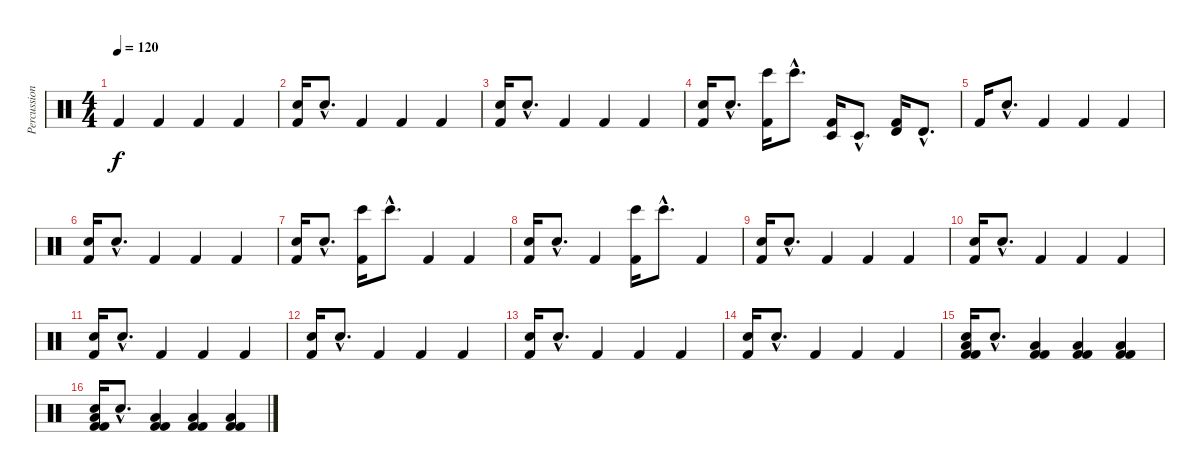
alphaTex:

\track ("Percussions" "Percussion") {instrument percussion}
\staff {score}
\articulation defaults
\ts (4 4)
\tempo 120
\clef neutral
\ks c "Kick (hit) 2".4{dy f} "Kick (hit) 2".4 "Kick (hit) 2".4 "Kick (hit) 2".4
|
("Electric Snare (hit)" "Kick (hit) 2").16 "Electric Snare (hit)"{hac}.8{d} "Kick (hit) 2".4 "Kick (hit) 2".4 "Kick (hit) 2".4 |
("Electric Snare (hit)" "Kick (hit) 2").16 "Electric Snare (hit)"{hac}.8{d} "Kick (hit) 2".4 "Kick (hit) 2".4 "Kick (hit) 2".4 |
("Electric Snare (hit)" "Kick (hit) 2").16 "Electric Snare (hit)"{hac}.8{d} ("Bongo High (hit)" "Kick (hit) 2").16 "Bongo High (hit)"{hac}.8{d} ("Timbale low (hit)" "Kick (hit) 2").16 "Timbale low (hit)"{hac}.8{d} ("Timbale high (hit)" "Kick (hit) 2").16 "Timbale high (hit)"{hac}.8{d} |
"Kick (hit) 2".16 "Electric Snare (hit)"{hac}.8{d} "Kick (hit) 2".4 "Kick (hit) 2".4 "Kick (hit) 2".4 |
("Electric Snare (hit)" "Kick (hit) 2").16 "Electric Snare (hit)"{hac}.8{d} "Kick (hit) 2".4 "Kick (hit) 2".4 "Kick (hit) 2".4 |
("Electric Snare (hit)" "Kick (hit) 2").16 "Electric Snare (hit)"{hac}.8{d} ("Bongo High (hit)" "Kick (hit) 2").16 "Bongo High (hit)"{hac}.8{d} "Kick (hit) 2".4 "Kick (hit) 2".4 |
("Electric Snare (hit)" "Kick (hit) 2").16 "Electric Snare (hit)"{hac}.8{d} "Kick (hit) 2".4 ("Bongo High (hit)" "Kick (hit) 2").16 "Bongo High (hit)"{hac}.8{d} "Kick (hit) 2".4 |
("Electric Snare (hit)" "Kick (hit) 2").16 "Electric Snare (hit)"{hac}.8{d} "Kick (hit) 2".4 "Kick (hit) 2".4 "Kick (hit) 2".4 |
("Electric Snare (hit)" "Kick (hit) 2").16 "Electric Snare (hit)"{hac}.8{d} "Kick (hit) 2".4 "Kick (hit) 2".4 "Kick (hit) 2".4 |
("Electric Snare (hit)" "Kick (hit) 2").16 "Electric Snare (hit)"{hac}.8{d} "Kick (hit) 2".4 "Kick (hit) 2".4 "Kick (hit) 2".4 |
("Electric Snare (hit)" "Kick (hit) 2").16 "Electric Snare (hit)"{hac}.8{d} "Kick (hit) 2".4 "Kick (hit) 2".4 "Kick (hit) 2".4 |
("Electric Snare (hit)" "Kick (hit) 2").16 "Electric Snare (hit)"{hac}.8{d} "Kick (hit) 2".4 "Kick (hit) 2".4 "Kick (hit) 2".4 |
("Electric Snare (hit)" "Kick (hit) 2").16 "Electric Snare (hit)"{hac}.8{d} "Kick (hit) 2".4 "Kick (hit) 2".4 "Kick (hit) 2".4 |
("Electric Snare (hit)" "Kick (hit) 2" "Kick (hit) 2" "Low Floor Tom (hit)").16 "Electric Snare (hit)"{hac}.8{d} ("Kick (hit) 2" "Kick (hit) 2" "Low Floor Tom (hit)").4 ("Kick (hit) 2" "Kick (hit) 2" "Low Floor Tom (hit)").4 ("Kick (hit) 2" "Kick (hit) 2" "Low Floor Tom (hit)").4 |
("Electric Snare (hit)" "Kick (hit) 2" "Kick (hit) 2" "Low Floor Tom (hit)").16 "Electric Snare (hit)"{hac}.8{d} ("Kick (hit) 2" "Kick (hit) 2" "Low Floor Tom (hit)").4 ("Kick (hit) 2" "Kick (hit) 2" "Low Floor Tom (hit)").4 ("Kick (hit) 2" "Kick (hit) 2" "Low Floor Tom (hit)").4
